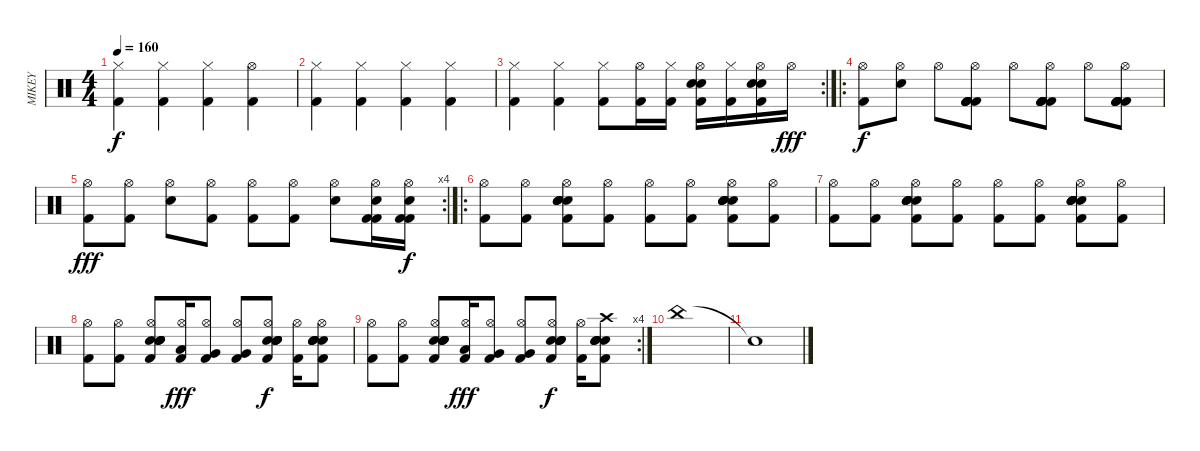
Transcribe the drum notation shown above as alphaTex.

\track ("MIKEY" "MIKEY") {instrument percussion}
\staff {score}
\articulation defaults
\ts (4 4)
\tempo 160
\clef neutral
\ks c
("Hi-Hat (closed)" "Kick (hit) 2").4{dy f} ("Hi-Hat (closed)" "Kick (hit) 2").4 ("Hi-Hat (closed)" "Kick (hit) 2").4 ("Hi-Hat (open)" "Kick (hit) 2").4 |
("Hi-Hat (closed)" "Kick (hit) 2").4 ("Hi-Hat (closed)" "Kick (hit) 2").4 ("Hi-Hat (closed)" "Kick (hit) 2").4 ("Hi-Hat (closed)" "Kick (hit) 2").4 |
\rc 2
("Hi-Hat (closed)" "Kick (hit) 2").4 ("Hi-Hat (closed)" "Kick (hit) 2").4 ("Hi-Hat (closed)" "Kick (hit) 2").8 ("Hi-Hat (open)" "Kick (hit) 2").16 ("Hi-Hat (closed)" "Kick (hit) 2").16 ("Hi-Hat (open)" "Kick (hit) 2" "Electric Snare (hit)" "Electric Snare (hit)").16 ("Hi-Hat (closed)" "Kick (hit) 2").16 ("Hi-Hat (open)" "Kick (hit) 2" "Electric Snare (hit)" "Electric Snare (hit)").16 "Hi-Hat (open)".16{dy fff} |
\ro
("Kick (hit) 2" "Hi-Hat (open)").8{dy f} ("Electric Snare (hit)" "Hi-Hat (open)").8 "Hi-Hat (open)".8 ("Kick (hit) 2" "Kick (hit) 2" "Kick (hit) 2" "Kick (hit) 2" "Kick (hit) 2" "Hi-Hat (open)").8 "Hi-Hat (open)".8 ("Kick (hit) 2" "Kick (hit) 2" "Kick (hit) 2" "Kick (hit) 2" "Kick (hit) 2" "Hi-Hat (open)").8 "Hi-Hat (open)".8 ("Kick (hit) 2" "Kick (hit) 2" "Kick (hit) 2" "Kick (hit) 2" "Kick (hit) 2" "Hi-Hat (open)").8 |
\rc 4
("Kick (hit) 2" "Hi-Hat (open)").8{dy fff} ("Kick (hit) 2" "Hi-Hat (open)").8 ("Electric Snare (hit)" "Hi-Hat (open)").8 ("Kick (hit) 2" "Hi-Hat (open)").8 ("Kick (hit) 2" "Hi-Hat (open)").8 ("Kick (hit) 2" "Hi-Hat (open)").8 ("Electric Snare (hit)" "Hi-Hat (open)").8 ("Kick (hit) 2" "Kick (hit) 2" "Electric Snare (hit)" "Hi-Hat (open)").16 ("Kick (hit) 2" "Kick (hit) 2" "Electric Snare (hit)" "Hi-Hat (open)").16{dy f} |
\ro
("Hi-Hat (open)" "Kick (hit) 2").8 ("Hi-Hat (open)" "Kick (hit) 2").8 ("Kick (hit) 2" "Electric Snare (hit)" "Electric Snare (hit)" "Electric Snare (hit)" "Hi-Hat (open)" "Electric Snare (hit)").8 ("Hi-Hat (open)" "Kick (hit) 2").8 ("Hi-Hat (open)" "Kick (hit) 2").8 ("Hi-Hat (open)" "Kick (hit) 2").8 ("Kick (hit) 2" "Electric Snare (hit)" "Electric Snare (hit)" "Electric Snare (hit)" "Hi-Hat (open)" "Electric Snare (hit)").8 ("Hi-Hat (open)" "Kick (hit) 2").8 |
("Hi-Hat (open)" "Kick (hit) 2").8 ("Hi-Hat (open)" "Kick (hit) 2").8 ("Kick (hit) 2" "Electric Snare (hit)" "Electric Snare (hit)" "Electric Snare (hit)" "Hi-Hat (open)" "Electric Snare (hit)").8 ("Hi-Hat (open)" "Kick (hit) 2").8 ("Hi-Hat (open)" "Kick (hit) 2").8 ("Hi-Hat (open)" "Kick (hit) 2").8 ("Kick (hit) 2" "Electric Snare (hit)" "Electric Snare (hit)" "Electric Snare (hit)" "Hi-Hat (open)" "Electric Snare (hit)").8 ("Hi-Hat (open)" "Kick (hit) 2").8 |
("Hi-Hat (open)" "Kick (hit) 2").8 ("Hi-Hat (open)" "Kick (hit) 2").8 ("Kick (hit) 2" "Electric Snare (hit)" "Electric Snare (hit)" "Electric Snare (hit)" "Hi-Hat (open)" "Electric Snare (hit)").8 ("Low Tom (hit)" "Hi-Hat (open)" "Kick (hit) 2").16{dy fff} ("Very Low Tom (hit)" "Hi-Hat (open)" "Kick (hit) 2").8 ("Very Low Tom (hit)" "Hi-Hat (open)" "Kick (hit) 2").8 ("Kick (hit) 2" "Electric Snare (hit)" "Electric Snare (hit)" "Electric Snare (hit)" "Hi-Hat (open)" "Electric Snare (hit)").8{dy f} ("Hi-Hat (open)" "Kick (hit) 2").16 ("Kick (hit) 2" "Electric Snare (hit)" "Electric Snare (hit)" "Electric Snare (hit)" "Hi-Hat (open)" "Electric Snare (hit)").8 |
\rc 4
("Hi-Hat (open)" "Kick (hit) 2").8 ("Hi-Hat (open)" "Kick (hit) 2").8 ("Kick (hit) 2" "Electric Snare (hit)" "Electric Snare (hit)" "Electric Snare (hit)" "Hi-Hat (open)" "Electric Snare (hit)").8 ("Low Tom (hit)" "Hi-Hat (open)" "Kick (hit) 2").16{dy fff} ("Very Low Tom (hit)" "Hi-Hat (open)" "Kick (hit) 2").8 ("Very Low Tom (hit)" "Hi-Hat (open)" "Kick (hit) 2").8 ("Kick (hit) 2" "Electric Snare (hit)" "Electric Snare (hit)" "Electric Snare (hit)" "Hi-Hat (open)" "Electric Snare (hit)").8{dy f} ("Hi-Hat (open)" "Kick (hit) 2").16 ("Kick (hit) 2" "Electric Snare (hit)" "Electric Snare (hit)" "Electric Snare (hit)" "Crash high (hit)" "Electric Snare (hit)").8 |
"China (hit)".1 |
"Snare (hit)"{t}.1
